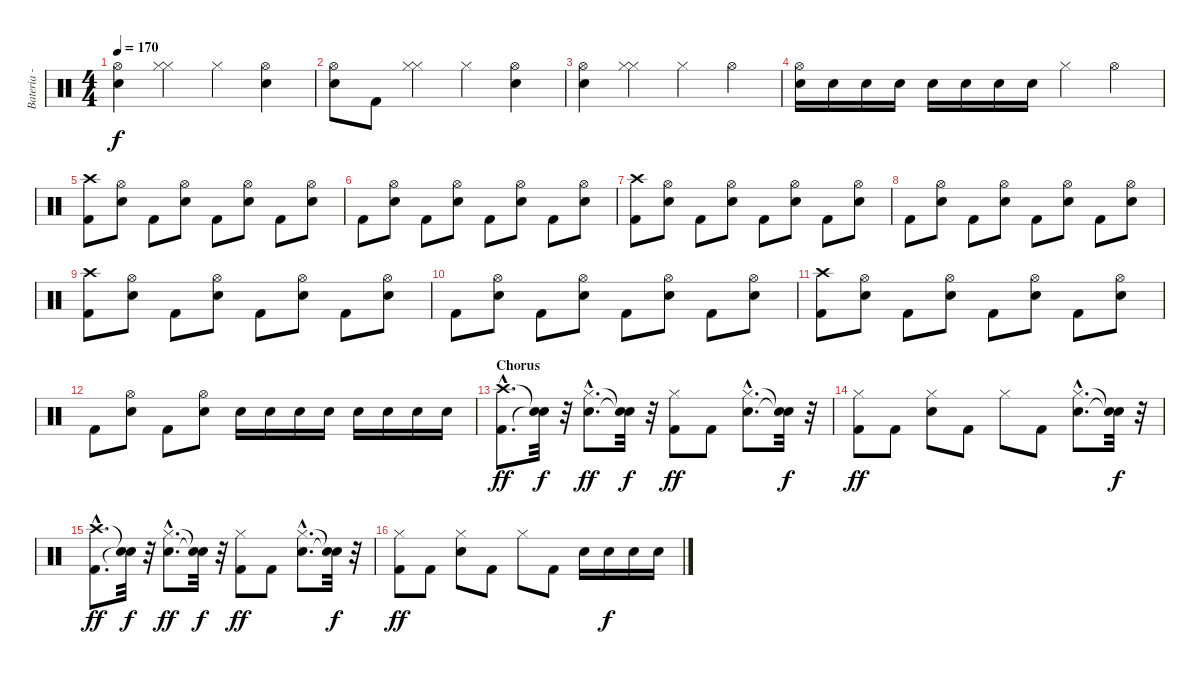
\track ("Bateria - Larzon" "Bateria - ") {instrument percussion}
\staff {score}
\articulation defaults
\ts (4 4)
\tempo 170
\clef neutral
\ks c
("Hi-Hat (open)" "Electric Snare (hit)").4{dy f} ("Hi-Hat (closed)" "Hi-Hat (closed)").4 "Hi-Hat (closed)".4 ("Hi-Hat (open)" "Electric Snare (hit)").4 |
("Hi-Hat (open)" "Electric Snare (hit)").8 "Kick (hit) 2".8 ("Hi-Hat (closed)" "Hi-Hat (closed)").4 "Hi-Hat (closed)".4 ("Hi-Hat (open)" "Electric Snare (hit)").4 |
("Hi-Hat (open)" "Electric Snare (hit)").4 ("Hi-Hat (closed)" "Hi-Hat (closed)").4 "Hi-Hat (closed)".4 "Hi-Hat (open)".4 |
("Hi-Hat (open)" "Electric Snare (hit)").16 "Electric Snare (hit)".16 "Electric Snare (hit)".16 "Electric Snare (hit)".16 "Electric Snare (hit)".16 "Electric Snare (hit)".16 "Electric Snare (hit)".16 "Electric Snare (hit)".16 "Hi-Hat (closed)".4 "Hi-Hat (open)".4 |
("Kick (hit) 2" "Crash high (hit)").8 ("Electric Snare (hit)" "Hi-Hat (open)").8 "Kick (hit) 2".8 ("Electric Snare (hit)" "Hi-Hat (open)").8 "Kick (hit) 2".8 ("Electric Snare (hit)" "Hi-Hat (open)").8 "Kick (hit) 2".8 ("Electric Snare (hit)" "Hi-Hat (open)").8 |
"Kick (hit) 2".8 ("Hi-Hat (open)" "Electric Snare (hit)").8 "Kick (hit) 2".8 ("Hi-Hat (open)" "Electric Snare (hit)").8 "Kick (hit) 2".8 ("Hi-Hat (open)" "Electric Snare (hit)").8 "Kick (hit) 2".8 ("Hi-Hat (open)" "Electric Snare (hit)").8 |
("Kick (hit) 2" "Crash high (hit)").8 ("Electric Snare (hit)" "Hi-Hat (open)").8 "Kick (hit) 2".8 ("Electric Snare (hit)" "Hi-Hat (open)").8 "Kick (hit) 2".8 ("Electric Snare (hit)" "Hi-Hat (open)").8 "Kick (hit) 2".8 ("Electric Snare (hit)" "Hi-Hat (open)").8 |
"Kick (hit) 2".8 ("Hi-Hat (open)" "Electric Snare (hit)").8 "Kick (hit) 2".8 ("Hi-Hat (open)" "Electric Snare (hit)").8 "Kick (hit) 2".8 ("Hi-Hat (open)" "Electric Snare (hit)").8 "Kick (hit) 2".8 ("Hi-Hat (open)" "Electric Snare (hit)").8 |
("Kick (hit) 2" "Crash high (hit)").8 ("Electric Snare (hit)" "Hi-Hat (open)").8 "Kick (hit) 2".8 ("Electric Snare (hit)" "Hi-Hat (open)").8 "Kick (hit) 2".8 ("Electric Snare (hit)" "Hi-Hat (open)").8 "Kick (hit) 2".8 ("Electric Snare (hit)" "Hi-Hat (open)").8 |
"Kick (hit) 2".8 ("Hi-Hat (open)" "Electric Snare (hit)").8 "Kick (hit) 2".8 ("Hi-Hat (open)" "Electric Snare (hit)").8 "Kick (hit) 2".8 ("Hi-Hat (open)" "Electric Snare (hit)").8 "Kick (hit) 2".8 ("Hi-Hat (open)" "Electric Snare (hit)").8 |
("Kick (hit) 2" "Crash high (hit)").8 ("Electric Snare (hit)" "Hi-Hat (open)").8 "Kick (hit) 2".8 ("Electric Snare (hit)" "Hi-Hat (open)").8 "Kick (hit) 2".8 ("Electric Snare (hit)" "Hi-Hat (open)").8 "Kick (hit) 2".8 ("Electric Snare (hit)" "Hi-Hat (open)").8 |
"Kick (hit) 2".8 ("Hi-Hat (open)" "Electric Snare (hit)").8 "Kick (hit) 2".8 ("Hi-Hat (open)" "Electric Snare (hit)").8 "Electric Snare (hit)".16 "Electric Snare (hit)".16 "Electric Snare (hit)".16 "Electric Snare (hit)".16 "Electric Snare (hit)".16 "Electric Snare (hit)".16 "Electric Snare (hit)".16 "Electric Snare (hit)".16 |
\section ("" "Chorus")
("Kick (hit) 2"{hac} "Crash high (hit)"{hac}).8{d dy ff} ("Snare (hit)"{t} "Snare (hit)"{t}).32{dy f} r.32 ("Electric Snare (hit)"{hac} "Hi-Hat (closed)"{hac}).8{d dy ff} ("Snare (hit)"{t} "Snare (hit)"{t}).32{dy f} r.32 ("Kick (hit) 2" "Hi-Hat (closed)").8{dy ff} "Kick (hit) 2".8 ("Electric Snare (hit)"{hac} "Hi-Hat (closed)"{hac}).8{d} ("Snare (hit)"{t} "Snare (hit)"{t}).32{dy f} r.32 |
("Kick (hit) 2" "Hi-Hat (closed)").8{dy ff} "Kick (hit) 2".8 ("Electric Snare (hit)" "Hi-Hat (closed)").8 "Kick (hit) 2".8 "Hi-Hat (closed)".8 "Kick (hit) 2".8 ("Electric Snare (hit)"{hac} "Hi-Hat (closed)"{hac}).8{d} ("Snare (hit)"{t} "Snare (hit)"{t}).32{dy f} r.32 |
("Kick (hit) 2"{hac} "Crash high (hit)"{hac}).8{d dy ff} ("Snare (hit)"{t} "Snare (hit)"{t}).32{dy f} r.32 ("Electric Snare (hit)"{hac} "Hi-Hat (closed)"{hac}).8{d dy ff} ("Snare (hit)"{t} "Snare (hit)"{t}).32{dy f} r.32 ("Kick (hit) 2" "Hi-Hat (closed)").8{dy ff} "Kick (hit) 2".8 ("Electric Snare (hit)"{hac} "Hi-Hat (closed)"{hac}).8{d} ("Snare (hit)"{t} "Snare (hit)"{t}).32{dy f} r.32 |
("Kick (hit) 2" "Hi-Hat (closed)").8{dy ff} "Kick (hit) 2".8 ("Electric Snare (hit)" "Hi-Hat (closed)").8 "Kick (hit) 2".8 "Hi-Hat (closed)".8 "Kick (hit) 2".8 "Electric Snare (hit)".16 "Electric Snare (hit)".16{dy f} "Electric Snare (hit)".16 "Electric Snare (hit)".16
